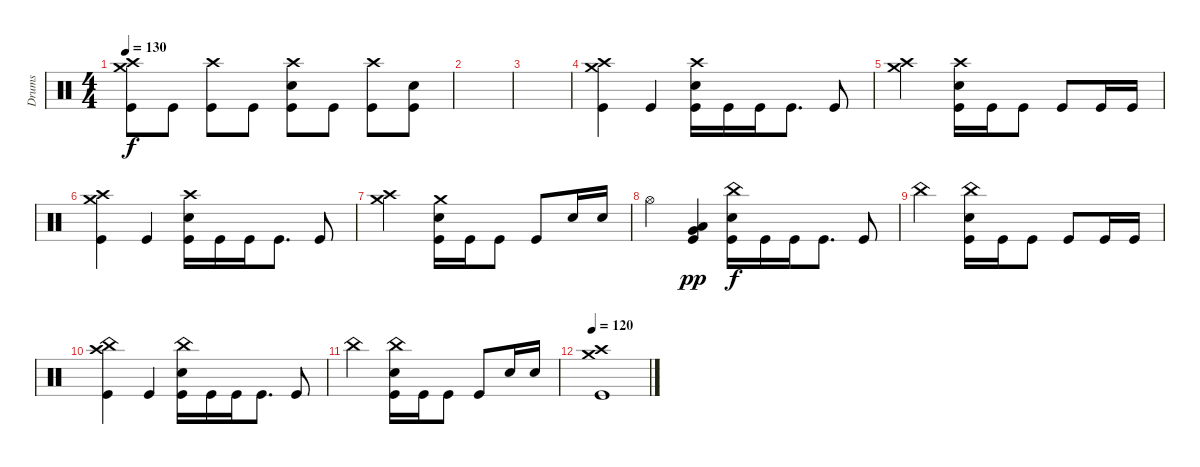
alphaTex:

\track ("Drums" "Drums") {instrument percussion}
\staff {score}
\articulation defaults
\ts (4 4)
\tempo 130
\clef neutral
\ks c
("Crash high (hit)" "Crash medium (hit)" "Kick (hit)").8{dy f} "Kick (hit)".8 ("Crash high (hit)" "Kick (hit)").8 "Kick (hit)".8 ("Crash high (hit)" "Snare (hit) 2" "Kick (hit)").8 "Kick (hit)".8 ("Crash high (hit)" "Kick (hit)").8 ("Snare (hit) 2" "Kick (hit)").8 |
|
|
("Crash high (hit)" "Crash medium (hit)" "Kick (hit)").4 "Kick (hit)".4 ("Crash high (hit)" "Snare (hit) 2" "Kick (hit)").16 "Kick (hit)".16 "Kick (hit)".16 "Kick (hit)".8{d} "Kick (hit)".8 |
("Crash high (hit)" "Crash medium (hit)").2 ("Crash high (hit)" "Snare (hit) 2" "Kick (hit)").16 "Kick (hit)".16 "Kick (hit)".8 "Kick (hit)".8 "Kick (hit)".16 "Kick (hit)".16 |
("Crash high (hit)" "Crash medium (hit)" "Kick (hit)").4 "Kick (hit)".4 ("Crash high (hit)" "Snare (hit) 2" "Kick (hit)").16 "Kick (hit)".16 "Kick (hit)".16 "Kick (hit)".8{d} "Kick (hit)".8 |
("Crash high (hit)" "Crash medium (hit)").2 ("Crash medium (hit)" "Snare (hit) 2" "Kick (hit)").16 "Kick (hit)".16 "Kick (hit)".8 "Kick (hit)".8 "Snare (hit) 2".16 "Snare (hit) 2".16 |
"Hi-Hat (open)".4 ("Very Low Tom (hit)" "Low Floor Tom (hit)" "Kick (hit)").4{dy pp} ("China (hit)" "Snare (hit) 2" "Kick (hit)").16{dy f} "Kick (hit)".16 "Kick (hit)".16 "Kick (hit)".8{d} "Kick (hit)".8 |
"China (hit)".2 ("China (hit)" "Snare (hit) 2" "Kick (hit)").16 "Kick (hit)".16 "Kick (hit)".8 "Kick (hit)".8 "Kick (hit)".16 "Kick (hit)".16 |
("Crash high (hit)" "China (hit)" "Kick (hit)").4 "Kick (hit)".4 ("China (hit)" "Snare (hit) 2" "Kick (hit)").16 "Kick (hit)".16 "Kick (hit)".16 "Kick (hit)".8{d} "Kick (hit)".8 |
"China (hit)".2 ("China (hit)" "Snare (hit) 2" "Kick (hit)").16 "Kick (hit)".16 "Kick (hit)".8 "Kick (hit)".8 "Snare (hit) 2".16 "Snare (hit) 2".16 |
\tempo 120
("Crash high (hit)" "Crash medium (hit)" "Kick (hit)").1
